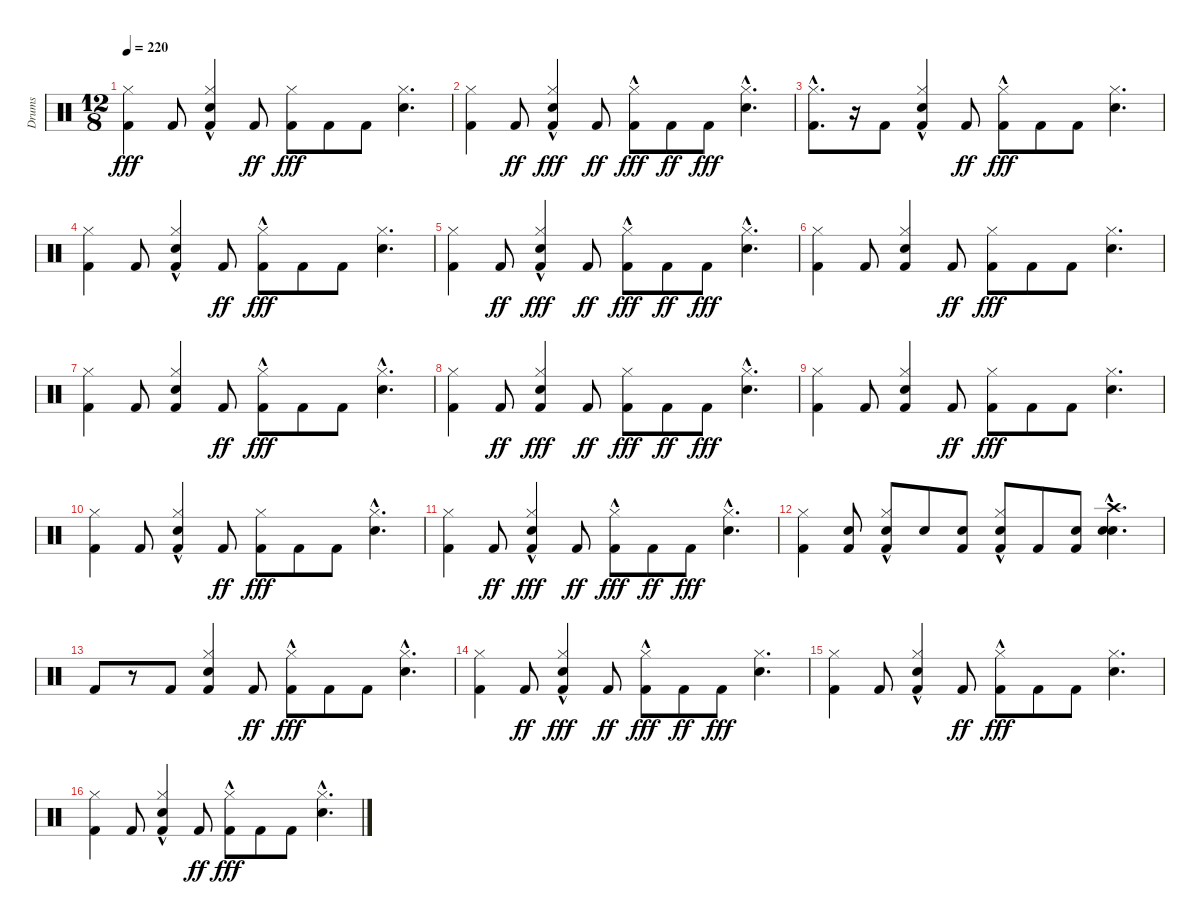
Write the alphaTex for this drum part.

\track ("Drums" "Drums") {instrument percussion}
\staff {score}
\articulation defaults
\ts (12 8)
\tempo 220
\clef neutral
\ks c
("Kick (hit) 2" "Hi-Hat (closed)").4{dy fff} "Kick (hit) 2".8 ("Kick (hit) 2" "Snare (hit) 2" "Hi-Hat (closed)"{hac}).4 "Kick (hit) 2".8{dy ff} ("Kick (hit) 2" "Hi-Hat (closed)").8{dy fff} "Kick (hit) 2".8 "Kick (hit) 2".8 ("Snare (hit) 2" "Hi-Hat (closed)").4{d} |
("Kick (hit) 2" "Hi-Hat (closed)").4 "Kick (hit) 2".8{dy ff} ("Kick (hit) 2" "Snare (hit) 2" "Hi-Hat (closed)"{hac}).4{dy fff} "Kick (hit) 2".8{dy ff} ("Kick (hit) 2" "Hi-Hat (closed)"{hac}).8{dy fff} "Kick (hit) 2".8{dy ff} "Kick (hit) 2".8{dy fff} ("Snare (hit) 2" "Hi-Hat (closed)"{hac}).4{d} |
("Kick (hit) 2" "Hi-Hat (closed)"{hac}).8{d} r.16 "Kick (hit) 2".8 ("Kick (hit) 2" "Snare (hit) 2" "Hi-Hat (closed)"{hac}).4 "Kick (hit) 2".8{dy ff} ("Kick (hit) 2" "Hi-Hat (closed)"{hac}).8{dy fff} "Kick (hit) 2".8 "Kick (hit) 2".8 ("Snare (hit) 2" "Hi-Hat (closed)").4{d} |
("Kick (hit) 2" "Hi-Hat (closed)").4 "Kick (hit) 2".8 ("Kick (hit) 2" "Snare (hit) 2" "Hi-Hat (closed)"{hac}).4 "Kick (hit) 2".8{dy ff} ("Kick (hit) 2" "Hi-Hat (closed)"{hac}).8{dy fff} "Kick (hit) 2".8 "Kick (hit) 2".8 ("Snare (hit) 2" "Hi-Hat (closed)").4{d} |
("Kick (hit) 2" "Hi-Hat (closed)").4 "Kick (hit) 2".8{dy ff} ("Kick (hit) 2" "Snare (hit) 2" "Hi-Hat (closed)"{hac}).4{dy fff} "Kick (hit) 2".8{dy ff} ("Kick (hit) 2" "Hi-Hat (closed)"{hac}).8{dy fff} "Kick (hit) 2".8{dy ff} "Kick (hit) 2".8{dy fff} ("Snare (hit) 2" "Hi-Hat (closed)"{hac}).4{d} |
("Kick (hit) 2" "Hi-Hat (closed)").4 "Kick (hit) 2".8 ("Kick (hit) 2" "Snare (hit) 2" "Hi-Hat (closed)").4 "Kick (hit) 2".8{dy ff} ("Kick (hit) 2" "Hi-Hat (closed)").8{dy fff} "Kick (hit) 2".8 "Kick (hit) 2".8 ("Snare (hit) 2" "Hi-Hat (closed)").4{d} |
("Kick (hit) 2" "Hi-Hat (closed)").4 "Kick (hit) 2".8 ("Kick (hit) 2" "Snare (hit) 2" "Hi-Hat (closed)").4 "Kick (hit) 2".8{dy ff} ("Kick (hit) 2" "Hi-Hat (closed)"{hac}).8{dy fff} "Kick (hit) 2".8 "Kick (hit) 2".8 ("Snare (hit) 2" "Hi-Hat (closed)"{hac}).4{d} |
("Kick (hit) 2" "Hi-Hat (closed)").4 "Kick (hit) 2".8{dy ff} ("Kick (hit) 2" "Snare (hit) 2" "Hi-Hat (closed)").4{dy fff} "Kick (hit) 2".8{dy ff} ("Kick (hit) 2" "Hi-Hat (closed)").8{dy fff} "Kick (hit) 2".8{dy ff} "Kick (hit) 2".8{dy fff} ("Snare (hit) 2" "Hi-Hat (closed)"{hac}).4{d} |
("Kick (hit) 2" "Hi-Hat (closed)").4 "Kick (hit) 2".8 ("Kick (hit) 2" "Snare (hit) 2" "Hi-Hat (closed)").4 "Kick (hit) 2".8{dy ff} ("Kick (hit) 2" "Hi-Hat (closed)").8{dy fff} "Kick (hit) 2".8 "Kick (hit) 2".8 ("Snare (hit) 2" "Hi-Hat (closed)").4{d} |
("Kick (hit) 2" "Hi-Hat (closed)").4 "Kick (hit) 2".8 ("Kick (hit) 2" "Snare (hit) 2" "Hi-Hat (closed)"{hac}).4 "Kick (hit) 2".8{dy ff} ("Kick (hit) 2" "Hi-Hat (closed)").8{dy fff} "Kick (hit) 2".8 "Kick (hit) 2".8 ("Snare (hit) 2" "Hi-Hat (closed)"{hac}).4{d} |
("Kick (hit) 2" "Hi-Hat (closed)").4 "Kick (hit) 2".8{dy ff} ("Kick (hit) 2" "Snare (hit) 2" "Hi-Hat (closed)"{hac}).4{dy fff} "Kick (hit) 2".8{dy ff} ("Kick (hit) 2" "Hi-Hat (closed)"{hac}).8{dy fff} "Kick (hit) 2".8{dy ff} "Kick (hit) 2".8{dy fff} ("Snare (hit) 2" "Hi-Hat (closed)"{hac}).4{d} |
("Kick (hit) 2" "Hi-Hat (closed)").4 ("Kick (hit) 2" "Snare (hit) 2").8 ("Kick (hit) 2" "Snare (hit) 2" "Hi-Hat (closed)"{hac}).8 "Snare (hit) 2".8 ("Kick (hit) 2" "Snare (hit) 2").8 ("Kick (hit) 2" "Snare (hit) 2"{hac} "Hi-Hat (closed)").8 "Kick (hit) 2".8 ("Kick (hit) 2" "Snare (hit) 2").8 ("Snare (hit) 2"{hac} "Snare (hit) 2"{hac} "Crash high (hit)").4{d} |
"Kick (hit) 2".8 r.8 "Kick (hit) 2".8 ("Kick (hit) 2" "Snare (hit) 2" "Hi-Hat (closed)").4 "Kick (hit) 2".8{dy ff} ("Kick (hit) 2" "Hi-Hat (closed)"{hac}).8{dy fff} "Kick (hit) 2".8 "Kick (hit) 2".8 ("Snare (hit) 2" "Hi-Hat (closed)"{hac}).4{d} |
("Kick (hit) 2" "Hi-Hat (closed)").4 "Kick (hit) 2".8{dy ff} ("Kick (hit) 2" "Snare (hit) 2" "Hi-Hat (closed)"{hac}).4{dy fff} "Kick (hit) 2".8{dy ff} ("Kick (hit) 2" "Hi-Hat (closed)"{hac}).8{dy fff} "Kick (hit) 2".8{dy ff} "Kick (hit) 2".8{dy fff} ("Snare (hit) 2" "Hi-Hat (closed)").4{d} |
("Kick (hit) 2" "Hi-Hat (closed)").4 "Kick (hit) 2".8 ("Kick (hit) 2" "Snare (hit) 2" "Hi-Hat (closed)"{hac}).4 "Kick (hit) 2".8{dy ff} ("Kick (hit) 2" "Hi-Hat (closed)"{hac}).8{dy fff} "Kick (hit) 2".8 "Kick (hit) 2".8 ("Snare (hit) 2" "Hi-Hat (closed)").4{d} |
("Kick (hit) 2" "Hi-Hat (closed)").4 "Kick (hit) 2".8 ("Kick (hit) 2" "Snare (hit) 2" "Hi-Hat (closed)"{hac}).4 "Kick (hit) 2".8{dy ff} ("Kick (hit) 2" "Hi-Hat (closed)"{hac}).8{dy fff} "Kick (hit) 2".8 "Kick (hit) 2".8 ("Snare (hit) 2" "Hi-Hat (closed)"{hac}).4{d}
